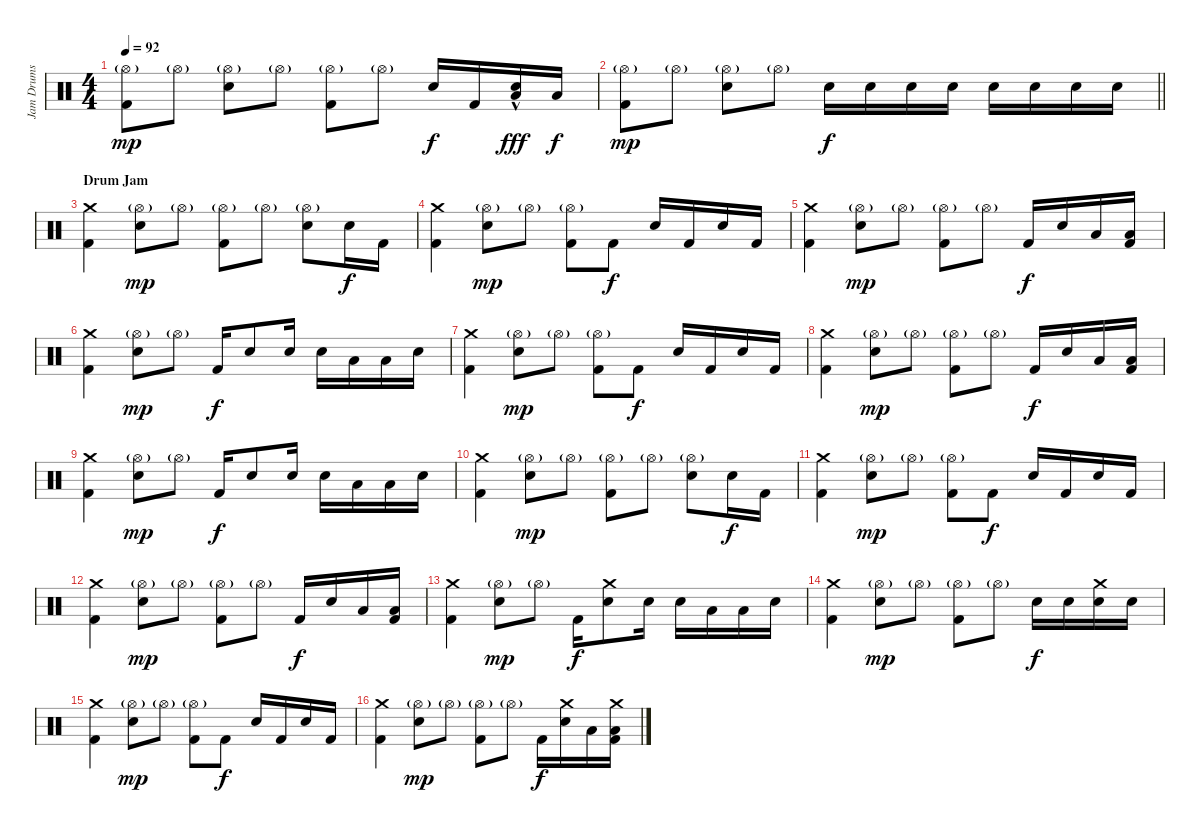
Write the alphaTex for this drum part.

\track ("Jam Drums" "Jam Drums") {instrument percussion}
\staff {score}
\articulation defaults
\ts (4 4)
\tempo 92
\clef neutral
\ks c
("Hi-Hat (open)"{g} "Kick (hit) 2").8{dy mp} "Hi-Hat (open)"{g}.8 ("Hi-Hat (open)"{g} "Snare (hit) 2").8 "Hi-Hat (open)"{g}.8 ("Hi-Hat (open)"{g} "Kick (hit) 2").8 "Hi-Hat (open)"{g}.8 "Snare (hit) 2".16{dy f} "Kick (hit) 2".16 ("Low Tom (hit)"{hac} "Snare (hit) 2").16{dy fff} "Low Tom (hit)".16{dy f} |
\barLineRight lightlight
("Hi-Hat (open)"{g} "Kick (hit) 2").8{dy mp} "Hi-Hat (open)"{g}.8 ("Hi-Hat (open)"{g} "Snare (hit) 2").8 "Hi-Hat (open)"{g}.8 "Snare (hit) 2".16{dy f volume 14} "Snare (hit) 2".16 "Snare (hit) 2".16 "Snare (hit) 2".16 "Snare (hit) 2".16 "Snare (hit) 2".16 "Snare (hit) 2".16 "Snare (hit) 2".16 |
\section ("" "Drum Jam")
("Crash medium (hit)" "Kick (hit) 2").4 ("Hi-Hat (open)"{g} "Snare (hit) 2").8{dy mp} "Hi-Hat (open)"{g}.8 ("Hi-Hat (open)"{g} "Kick (hit) 2").8 "Hi-Hat (open)"{g}.8 ("Hi-Hat (open)"{g} "Snare (hit) 2").8 "Snare (hit) 2".16{dy f} "Kick (hit) 2".16 |
("Crash medium (hit)" "Kick (hit) 2").4 ("Hi-Hat (open)"{g} "Snare (hit) 2").8{dy mp} "Hi-Hat (open)"{g}.8 ("Hi-Hat (open)"{g} "Kick (hit) 2").8 "Kick (hit) 2".8{dy f} "Snare (hit) 2".16 "Kick (hit) 2".16 "Snare (hit) 2".16 "Kick (hit) 2".16 |
("Crash medium (hit)" "Kick (hit) 2").4 ("Hi-Hat (open)"{g} "Snare (hit) 2").8{dy mp} "Hi-Hat (open)"{g}.8 ("Hi-Hat (open)"{g} "Kick (hit) 2").8 "Hi-Hat (open)"{g}.8 "Kick (hit) 2".16{dy f} "Snare (hit) 2".16 "Low Tom (hit)".16 ("Low Tom (hit)" "Kick (hit) 2").16 |
("Crash medium (hit)" "Kick (hit) 2").4 ("Hi-Hat (open)"{g} "Snare (hit) 2").8{dy mp} "Hi-Hat (open)"{g}.8 "Kick (hit) 2".16{dy f} "Snare (hit) 2".8 "Snare (hit) 2".16 "Snare (hit) 2".16 "Low Tom (hit)".16 "Low Tom (hit)".16 "Snare (hit) 2".16 |
("Crash medium (hit)" "Kick (hit) 2").4 ("Hi-Hat (open)"{g} "Snare (hit) 2").8{dy mp} "Hi-Hat (open)"{g}.8 ("Hi-Hat (open)"{g} "Kick (hit) 2").8 "Kick (hit) 2".8{dy f} "Snare (hit) 2".16 "Kick (hit) 2".16 "Snare (hit) 2".16 "Kick (hit) 2".16 |
("Crash medium (hit)" "Kick (hit) 2").4 ("Hi-Hat (open)"{g} "Snare (hit) 2").8{dy mp} "Hi-Hat (open)"{g}.8 ("Hi-Hat (open)"{g} "Kick (hit) 2").8 "Hi-Hat (open)"{g}.8 "Kick (hit) 2".16{dy f} "Snare (hit) 2".16 "Low Tom (hit)".16 ("Low Tom (hit)" "Kick (hit) 2").16 |
("Crash medium (hit)" "Kick (hit) 2").4 ("Hi-Hat (open)"{g} "Snare (hit) 2").8{dy mp} "Hi-Hat (open)"{g}.8 "Kick (hit) 2".16{dy f} "Snare (hit) 2".8 "Snare (hit) 2".16 "Snare (hit) 2".16 "Low Tom (hit)".16 "Low Tom (hit)".16 "Snare (hit) 2".16 |
("Crash medium (hit)" "Kick (hit) 2").4 ("Hi-Hat (open)"{g} "Snare (hit) 2").8{dy mp} "Hi-Hat (open)"{g}.8 ("Hi-Hat (open)"{g} "Kick (hit) 2").8 "Hi-Hat (open)"{g}.8 ("Hi-Hat (open)"{g} "Snare (hit) 2").8 "Snare (hit) 2".16{dy f} "Kick (hit) 2".16 |
("Crash medium (hit)" "Kick (hit) 2").4 ("Hi-Hat (open)"{g} "Snare (hit) 2").8{dy mp} "Hi-Hat (open)"{g}.8 ("Hi-Hat (open)"{g} "Kick (hit) 2").8 "Kick (hit) 2".8{dy f} "Snare (hit) 2".16 "Kick (hit) 2".16 "Snare (hit) 2".16 "Kick (hit) 2".16 |
("Crash medium (hit)" "Kick (hit) 2").4 ("Hi-Hat (open)"{g} "Snare (hit) 2").8{dy mp} "Hi-Hat (open)"{g}.8 ("Hi-Hat (open)"{g} "Kick (hit) 2").8 "Hi-Hat (open)"{g}.8 "Kick (hit) 2".16{dy f} "Snare (hit) 2".16 "Low Tom (hit)".16 ("Low Tom (hit)" "Kick (hit) 2").16 |
("Crash medium (hit)" "Kick (hit) 2").4 ("Hi-Hat (open)"{g} "Snare (hit) 2").8{dy mp} "Hi-Hat (open)"{g}.8 "Kick (hit) 2".16{dy f} ("Crash medium (hit)" "Snare (hit) 2").8 "Snare (hit) 2".16 "Snare (hit) 2".16 "Low Tom (hit)".16 "Low Tom (hit)".16 "Snare (hit) 2".16 |
("Crash medium (hit)" "Kick (hit) 2").4 ("Hi-Hat (open)"{g} "Snare (hit) 2").8{dy mp} "Hi-Hat (open)"{g}.8 ("Hi-Hat (open)"{g} "Kick (hit) 2").8 "Hi-Hat (open)"{g}.8 "Snare (hit) 2".16{dy f} "Snare (hit) 2".16 ("Crash medium (hit)" "Snare (hit) 2").16 "Snare (hit) 2".16 |
("Crash medium (hit)" "Kick (hit) 2").4 ("Hi-Hat (open)"{g} "Snare (hit) 2").8{dy mp} "Hi-Hat (open)"{g}.8 ("Hi-Hat (open)"{g} "Kick (hit) 2").8 "Kick (hit) 2".8{dy f} "Snare (hit) 2".16 "Kick (hit) 2".16 "Snare (hit) 2".16 "Kick (hit) 2".16 |
("Crash medium (hit)" "Kick (hit) 2").4 ("Hi-Hat (open)"{g} "Snare (hit) 2").8{dy mp} "Hi-Hat (open)"{g}.8 ("Hi-Hat (open)"{g} "Kick (hit) 2").8 "Hi-Hat (open)"{g}.8 "Kick (hit) 2".16{dy f} ("Crash medium (hit)" "Snare (hit) 2").16 "Low Tom (hit)".16 ("Crash medium (hit)" "Low Tom (hit)" "Kick (hit) 2").16
